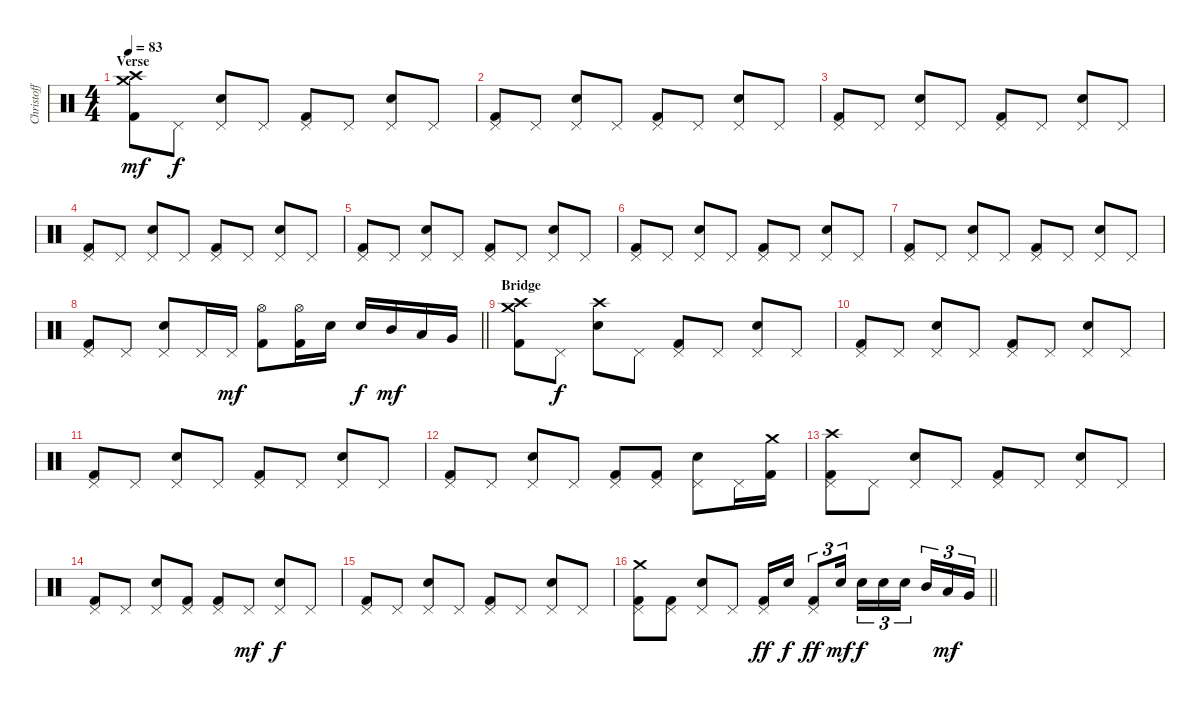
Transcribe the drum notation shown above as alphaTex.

\track ("Christoff" "Christoff") {instrument percussion}
\staff {score}
\articulation defaults
\ts (4 4)
\section ("" "Verse")
\tempo 83
\clef neutral
\ks c
("Crash medium (hit)" "Crash high (hit)" "Kick (hit) 2").8{dy mf} "Pedal Hi-Hat (hit)".8{dy f} ("Pedal Hi-Hat (hit)" "Electric Snare (hit)").8 "Pedal Hi-Hat (hit)".8 ("Pedal Hi-Hat (hit)" "Kick (hit) 2").8 "Pedal Hi-Hat (hit)".8 ("Pedal Hi-Hat (hit)" "Electric Snare (hit)").8 "Pedal Hi-Hat (hit)".8 |
("Pedal Hi-Hat (hit)" "Kick (hit) 2").8 "Pedal Hi-Hat (hit)".8 ("Pedal Hi-Hat (hit)" "Electric Snare (hit)").8 "Pedal Hi-Hat (hit)".8 ("Pedal Hi-Hat (hit)" "Kick (hit) 2").8 "Pedal Hi-Hat (hit)".8 ("Pedal Hi-Hat (hit)" "Electric Snare (hit)").8 "Pedal Hi-Hat (hit)".8 |
("Pedal Hi-Hat (hit)" "Kick (hit) 2").8 "Pedal Hi-Hat (hit)".8 ("Pedal Hi-Hat (hit)" "Electric Snare (hit)").8 "Pedal Hi-Hat (hit)".8 ("Pedal Hi-Hat (hit)" "Kick (hit) 2").8 "Pedal Hi-Hat (hit)".8 ("Pedal Hi-Hat (hit)" "Electric Snare (hit)").8 "Pedal Hi-Hat (hit)".8 |
("Pedal Hi-Hat (hit)" "Kick (hit) 2").8 "Pedal Hi-Hat (hit)".8 ("Pedal Hi-Hat (hit)" "Electric Snare (hit)").8 "Pedal Hi-Hat (hit)".8 ("Pedal Hi-Hat (hit)" "Kick (hit) 2").8 "Pedal Hi-Hat (hit)".8 ("Pedal Hi-Hat (hit)" "Electric Snare (hit)").8 "Pedal Hi-Hat (hit)".8 |
("Pedal Hi-Hat (hit)" "Kick (hit) 2").8 "Pedal Hi-Hat (hit)".8 ("Pedal Hi-Hat (hit)" "Electric Snare (hit)").8 "Pedal Hi-Hat (hit)".8 ("Pedal Hi-Hat (hit)" "Kick (hit) 2").8 "Pedal Hi-Hat (hit)".8 ("Pedal Hi-Hat (hit)" "Electric Snare (hit)").8 "Pedal Hi-Hat (hit)".8 |
("Pedal Hi-Hat (hit)" "Kick (hit) 2").8 "Pedal Hi-Hat (hit)".8 ("Pedal Hi-Hat (hit)" "Electric Snare (hit)").8 "Pedal Hi-Hat (hit)".8 ("Pedal Hi-Hat (hit)" "Kick (hit) 2").8 "Pedal Hi-Hat (hit)".8 ("Pedal Hi-Hat (hit)" "Electric Snare (hit)").8 "Pedal Hi-Hat (hit)".8 |
("Pedal Hi-Hat (hit)" "Kick (hit) 2").8 "Pedal Hi-Hat (hit)".8 ("Pedal Hi-Hat (hit)" "Electric Snare (hit)").8 "Pedal Hi-Hat (hit)".8 ("Pedal Hi-Hat (hit)" "Kick (hit) 2").8 "Pedal Hi-Hat (hit)".8 ("Pedal Hi-Hat (hit)" "Electric Snare (hit)").8 "Pedal Hi-Hat (hit)".8 |
\barLineRight lightlight
("Pedal Hi-Hat (hit)" "Kick (hit) 2").8 "Pedal Hi-Hat (hit)".8 ("Pedal Hi-Hat (hit)" "Electric Snare (hit)").8 "Pedal Hi-Hat (hit)".16 "Pedal Hi-Hat (hit)".16{dy mf} ("Hi-Hat (open)" "Kick (hit) 2").8 ("Hi-Hat (open)" "Kick (hit) 2").16 "Electric Snare (hit)".16 "Electric Snare (hit)".16{dy f} "Mid Tom (hit)".16{dy mf} "Low Tom (hit)".16 "Very Low Tom (hit)".16 |
\section ("" "Bridge")
("Crash medium (hit)" "Crash high (hit)" "Kick (hit) 2").8 "Pedal Hi-Hat (hit)".8{dy f} ("Crash high (hit)" "Electric Snare (hit)").8 "Pedal Hi-Hat (hit)".8 ("Pedal Hi-Hat (hit)" "Kick (hit) 2").8 "Pedal Hi-Hat (hit)".8 ("Pedal Hi-Hat (hit)" "Electric Snare (hit)").8 "Pedal Hi-Hat (hit)".8 |
("Pedal Hi-Hat (hit)" "Kick (hit) 2").8 "Pedal Hi-Hat (hit)".8 ("Pedal Hi-Hat (hit)" "Electric Snare (hit)").8 "Pedal Hi-Hat (hit)".8 ("Pedal Hi-Hat (hit)" "Kick (hit) 2").8 "Pedal Hi-Hat (hit)".8 ("Pedal Hi-Hat (hit)" "Electric Snare (hit)").8 "Pedal Hi-Hat (hit)".8 |
("Pedal Hi-Hat (hit)" "Kick (hit) 2").8 "Pedal Hi-Hat (hit)".8 ("Pedal Hi-Hat (hit)" "Electric Snare (hit)").8 "Pedal Hi-Hat (hit)".8 ("Pedal Hi-Hat (hit)" "Kick (hit) 2").8 "Pedal Hi-Hat (hit)".8 ("Pedal Hi-Hat (hit)" "Electric Snare (hit)").8 "Pedal Hi-Hat (hit)".8 |
("Pedal Hi-Hat (hit)" "Kick (hit) 2").8 "Pedal Hi-Hat (hit)".8 ("Pedal Hi-Hat (hit)" "Electric Snare (hit)").8 "Pedal Hi-Hat (hit)".8 ("Pedal Hi-Hat (hit)" "Kick (hit) 2").8 ("Pedal Hi-Hat (hit)" "Kick (hit) 2").8 ("Pedal Hi-Hat (hit)" "Electric Snare (hit)").8 "Pedal Hi-Hat (hit)".16 ("Crash medium (hit)" "Kick (hit) 2").16 |
("Crash high (hit)" "Pedal Hi-Hat (hit)" "Kick (hit) 2").8 "Pedal Hi-Hat (hit)".8 ("Pedal Hi-Hat (hit)" "Electric Snare (hit)").8 "Pedal Hi-Hat (hit)".8 ("Pedal Hi-Hat (hit)" "Kick (hit) 2").8 "Pedal Hi-Hat (hit)".8 ("Pedal Hi-Hat (hit)" "Electric Snare (hit)").8 "Pedal Hi-Hat (hit)".8 |
("Pedal Hi-Hat (hit)" "Kick (hit) 2").8 "Pedal Hi-Hat (hit)".8 ("Pedal Hi-Hat (hit)" "Electric Snare (hit)").8 ("Pedal Hi-Hat (hit)" "Kick (hit) 2").8 ("Pedal Hi-Hat (hit)" "Kick (hit) 2").8 "Pedal Hi-Hat (hit)".8{dy mf} ("Pedal Hi-Hat (hit)" "Electric Snare (hit)").8{dy f} "Pedal Hi-Hat (hit)".8 |
("Pedal Hi-Hat (hit)" "Kick (hit) 2").8 "Pedal Hi-Hat (hit)".8 ("Pedal Hi-Hat (hit)" "Electric Snare (hit)").8 "Pedal Hi-Hat (hit)".8 ("Pedal Hi-Hat (hit)" "Kick (hit) 2").8 "Pedal Hi-Hat (hit)".8 ("Pedal Hi-Hat (hit)" "Electric Snare (hit)").8 "Pedal Hi-Hat (hit)".8 |
\barLineRight lightlight
("Crash medium (hit)" "Pedal Hi-Hat (hit)" "Kick (hit) 2").8 ("Pedal Hi-Hat (hit)" "Kick (hit) 2").8 ("Pedal Hi-Hat (hit)" "Electric Snare (hit)").8 "Pedal Hi-Hat (hit)".8 ("Pedal Hi-Hat (hit)" "Kick (hit) 2").16{dy ff} "Electric Snare (hit)".16{dy f} ("Pedal Hi-Hat (hit)" "Kick (hit) 2").8{tu (3 2) dy ff} "Electric Snare (hit)".16{tu (3 2) dy mf} "Electric Snare (hit)".16{tu (3 2) dy f} "Electric Snare (hit)".16{tu (3 2)} "Electric Snare (hit)".16{tu (3 2) beam splitsecondary} "Mid Tom (hit)".16{tu (3 2)} "Low Tom (hit)".16{tu (3 2) dy mf} "Very Low Tom (hit)".16{tu (3 2)}
